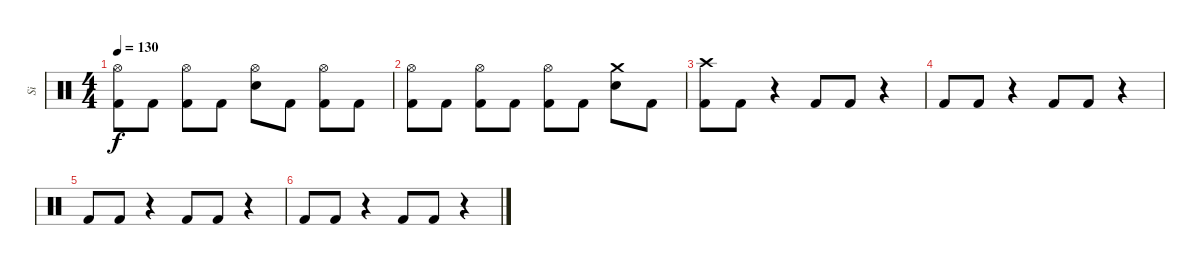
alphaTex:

\track ("Si" "Si") {instrument percussion}
\staff {score}
\articulation defaults
\ts (4 4)
\tempo 130
\clef neutral
\ks c
("Hi-Hat (open)" "Kick (hit) 2").8{dy f} "Kick (hit) 2".8 ("Hi-Hat (open)" "Kick (hit) 2").8 "Kick (hit) 2".8 ("Hi-Hat (open)" "Electric Snare (hit)").8 "Kick (hit) 2".8 ("Hi-Hat (open)" "Kick (hit) 2").8 "Kick (hit) 2".8 |
("Hi-Hat (open)" "Kick (hit) 2").8 "Kick (hit) 2".8 ("Hi-Hat (open)" "Kick (hit) 2").8 "Kick (hit) 2".8 ("Hi-Hat (open)" "Kick (hit) 2").8 "Kick (hit) 2".8 ("Crash medium (hit)" "Electric Snare (hit)").8 "Kick (hit) 2".8 |
("Crash high (hit)" "Kick (hit) 2").8 "Kick (hit) 2".8 r.4 "Kick (hit) 2".8 "Kick (hit) 2".8 r.4 |
"Kick (hit) 2".8 "Kick (hit) 2".8 r.4 "Kick (hit) 2".8 "Kick (hit) 2".8 r.4 |
"Kick (hit) 2".8 "Kick (hit) 2".8 r.4 "Kick (hit) 2".8 "Kick (hit) 2".8 r.4 |
"Kick (hit) 2".8 "Kick (hit) 2".8 r.4 "Kick (hit) 2".8 "Kick (hit) 2".8 r.4
